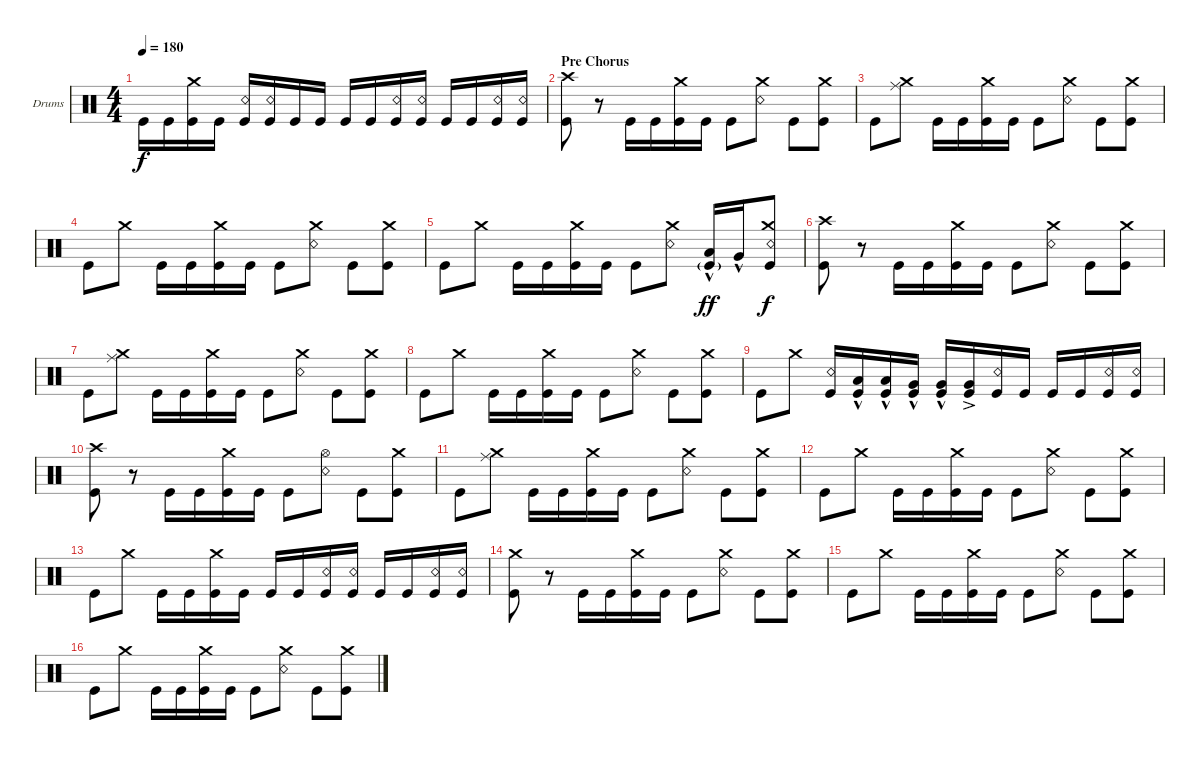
\bracketExtendMode groupsimilarinstruments
\firstSystemTrackNameOrientation horizontal
\otherSystemsTrackNameOrientation horizontal
\track ("Drumkit" "Drums") {instrument percussion}
\staff {score}
\articulation defaults
\ts (4 4)
\tempo 180
\clef neutral
\ks c "Kick (hit)".16{dy f} "Kick (hit)".16
("Kick (hit)" "Crash medium (hit)").16 "Kick (hit)".16 ("Kick (hit)" "Snare (rim shot)").16 ("Kick (hit)" "Snare (rim shot)").16 "Kick (hit)".16 "Kick (hit)".16 "Kick (hit)".16 "Kick (hit)".16 ("Kick (hit)" "Snare (rim shot)").16 ("Kick (hit)" "Snare (rim shot)").16 "Kick (hit)".16 "Kick (hit)".16 ("Kick (hit)" "Snare (rim shot)").16 ("Kick (hit)" "Snare (rim shot)").16 |
\section ("" "Pre Chorus")
("Kick (hit)" "Crash high (hit)").8 r.8 "Kick (hit)".16 "Kick (hit)".16 ("Kick (hit)" "Crash medium (hit)").16 "Kick (hit)".16 "Kick (hit)".8 ("Snare (rim shot)" "Crash medium (hit)").8 "Kick (hit)".8 ("Kick (hit)" "Crash medium (hit)").8 |
"Kick (hit)".8 ("Ride (middle)" "Crash medium (hit)").8 "Kick (hit)".16 "Kick (hit)".16 ("Kick (hit)" "Crash medium (hit)").16 "Kick (hit)".16 "Kick (hit)".8 ("Snare (rim shot)" "Crash medium (hit)").8 "Kick (hit)".8 ("Kick (hit)" "Crash medium (hit)").8 |
"Kick (hit)".8 "Crash medium (hit)".8 "Kick (hit)".16 "Kick (hit)".16 ("Kick (hit)" "Crash medium (hit)").16 "Kick (hit)".16 "Kick (hit)".8 ("Snare (rim shot)" "Crash medium (hit)").8 "Kick (hit)".8 ("Kick (hit)" "Crash medium (hit)").8 |
"Kick (hit)".8 "Crash medium (hit)".8 "Kick (hit)".16 "Kick (hit)".16 ("Kick (hit)" "Crash medium (hit)").16 "Kick (hit)".16 "Kick (hit)".8 ("Snare (rim shot)" "Crash medium (hit)").8 ("Kick (hit)"{g} "Low Tom (hit)"{hac}).16{dy ff} "Very Low Tom (hit)"{hac}.16 ("Crash medium (hit)" "Kick (hit)" "Snare (rim shot)").8{dy f} |
("Kick (hit)" "Crash high (hit)").8 r.8 "Kick (hit)".16 "Kick (hit)".16 ("Kick (hit)" "Crash medium (hit)").16 "Kick (hit)".16 "Kick (hit)".8 ("Snare (rim shot)" "Crash medium (hit)").8 "Kick (hit)".8 ("Kick (hit)" "Crash medium (hit)").8 |
"Kick (hit)".8 ("Crash medium (hit)" "Ride (middle)").8 "Kick (hit)".16 "Kick (hit)".16 ("Kick (hit)" "Crash medium (hit)").16 "Kick (hit)".16 "Kick (hit)".8 ("Snare (rim shot)" "Crash medium (hit)").8 "Kick (hit)".8 ("Kick (hit)" "Crash medium (hit)").8 |
"Kick (hit)".8 "Crash medium (hit)".8 "Kick (hit)".16 "Kick (hit)".16 ("Kick (hit)" "Crash medium (hit)").16 "Kick (hit)".16 "Kick (hit)".8 ("Snare (rim shot)" "Crash medium (hit)").8 "Kick (hit)".8 ("Kick (hit)" "Crash medium (hit)").8 |
"Kick (hit)".8 "Crash medium (hit)".8 ("Kick (hit)" "Snare (rim shot)").16 ("Kick (hit)" "Low Tom (hit)"{hac}).16 ("Kick (hit)" "Low Tom (hit)"{hac}).16 ("Kick (hit)" "Very Low Tom (hit)"{hac}).16 ("Kick (hit)" "Very Low Tom (hit)"{hac}).16 ("Kick (hit)" "Very Low Tom (hit)"{ac}).16 ("Snare (rim shot)" "Kick (hit)").16 "Kick (hit)".16 "Kick (hit)".16 "Kick (hit)".16 ("Kick (hit)" "Snare (rim shot)").16 ("Kick (hit)" "Snare (rim shot)").16 |
("Kick (hit)" "Crash high (hit)").8 r.8 "Kick (hit)".16 "Kick (hit)".16 ("Kick (hit)" "Crash medium (hit)").16 "Kick (hit)".16 "Kick (hit)".8 ("Snare (rim shot)" "Hi-Hat (open)").8 "Kick (hit)".8 ("Kick (hit)" "Crash medium (hit)").8 |
"Kick (hit)".8 ("Crash medium (hit)" "Ride (middle)").8 "Kick (hit)".16 "Kick (hit)".16 ("Kick (hit)" "Crash medium (hit)").16 "Kick (hit)".16 "Kick (hit)".8 ("Snare (rim shot)" "Crash medium (hit)").8 "Kick (hit)".8 ("Kick (hit)" "Crash medium (hit)").8 |
"Kick (hit)".8 "Crash medium (hit)".8 "Kick (hit)".16 "Kick (hit)".16 ("Kick (hit)" "Crash medium (hit)").16 "Kick (hit)".16 "Kick (hit)".8 ("Snare (rim shot)" "Crash medium (hit)").8 "Kick (hit)".8 ("Kick (hit)" "Crash medium (hit)").8 |
"Kick (hit)".8 "Crash medium (hit)".8 "Kick (hit)".16 "Kick (hit)".16 ("Kick (hit)" "Crash medium (hit)").16 "Kick (hit)".16 "Kick (hit)".16 "Kick (hit)".16 ("Snare (rim shot)" "Kick (hit)").16 ("Snare (rim shot)" "Kick (hit)").16 "Kick (hit)".16 "Kick (hit)".16 ("Kick (hit)" "Snare (rim shot)").16 ("Kick (hit)" "Snare (rim shot)").16 |
("Kick (hit)" "Crash medium (hit)").8 r.8 "Kick (hit)".16 "Kick (hit)".16 ("Kick (hit)" "Crash medium (hit)").16 "Kick (hit)".16 "Kick (hit)".8 ("Snare (rim shot)" "Crash medium (hit)").8 "Kick (hit)".8 ("Kick (hit)" "Crash medium (hit)").8 |
"Kick (hit)".8 "Crash medium (hit)".8 "Kick (hit)".16 "Kick (hit)".16 ("Kick (hit)" "Crash medium (hit)").16 "Kick (hit)".16 "Kick (hit)".8 ("Snare (rim shot)" "Crash medium (hit)").8 "Kick (hit)".8 ("Kick (hit)" "Crash medium (hit)").8 |
"Kick (hit)".8 "Crash medium (hit)".8 "Kick (hit)".16 "Kick (hit)".16 ("Kick (hit)" "Crash medium (hit)").16 "Kick (hit)".16 "Kick (hit)".8 ("Snare (rim shot)" "Crash medium (hit)").8 "Kick (hit)".8 ("Kick (hit)" "Crash medium (hit)").8
